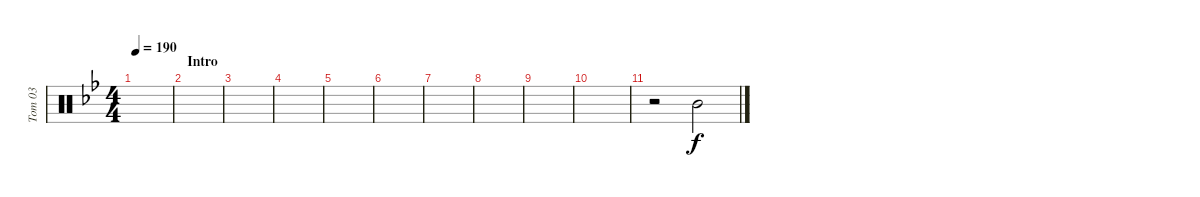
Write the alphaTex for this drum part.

\track ("Tom 03" "Tom 03") {instrument percussion}
\staff {score}
\articulation defaults
\ts (4 4)
\tempo 190
\clef neutral
\ks bb
|
\section ("" "Intro")
|
|
|
|
|
|
|
|
|
r.2 "Mid Tom (hit)".2
